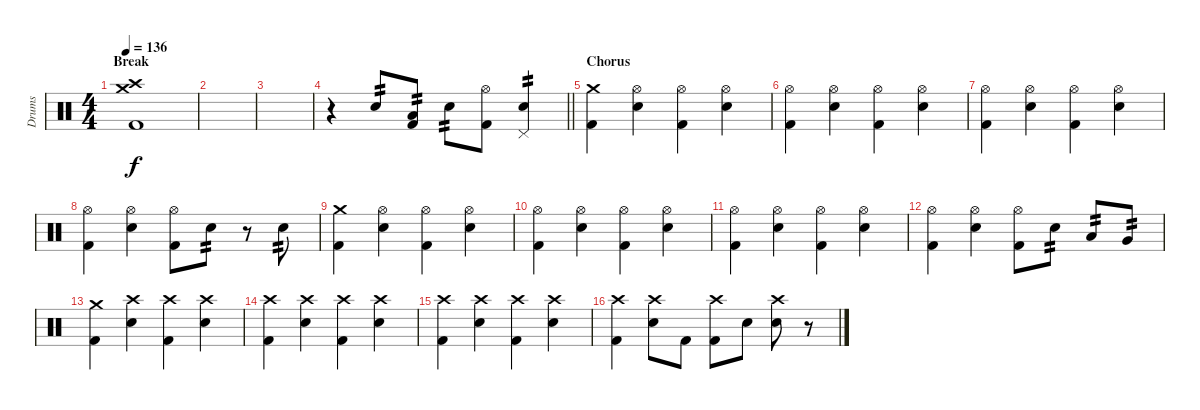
\track ("Drums" "Drums") {instrument percussion}
\staff {score}
\articulation defaults
\ts (4 4)
\section ("" "Break")
\tempo 136
\clef neutral
\ks c
("Crash high (hit)" "Crash medium (hit)" "Kick (hit) 2").1{dy f} |
|
|
\barLineRight lightlight
r.4 "Snare (hit) 2".8{tp 2} ("Low Tom (hit)" "Kick (hit) 2").8{tp 2} "Snare (hit) 2".8{tp 2} ("Hi-Hat (open)" "Kick (hit) 2").8 ("Pedal Hi-Hat (hit)" "Snare (hit) 2").4{tp 2} |
\section ("" "Chorus")
("Crash medium (hit)" "Kick (hit) 2").4 ("Hi-Hat (open)" "Snare (hit) 2").4 ("Hi-Hat (open)" "Kick (hit) 2").4 ("Hi-Hat (open)" "Snare (hit) 2").4 |
("Hi-Hat (open)" "Kick (hit) 2").4 ("Hi-Hat (open)" "Snare (hit) 2").4 ("Hi-Hat (open)" "Kick (hit) 2").4 ("Hi-Hat (open)" "Snare (hit) 2").4 |
("Hi-Hat (open)" "Kick (hit) 2").4 ("Hi-Hat (open)" "Snare (hit) 2").4 ("Hi-Hat (open)" "Kick (hit) 2").4 ("Hi-Hat (open)" "Snare (hit) 2").4 |
("Hi-Hat (open)" "Kick (hit) 2").4 ("Hi-Hat (open)" "Snare (hit) 2").4 ("Hi-Hat (open)" "Kick (hit) 2").8 "Snare (hit) 2".8{tp 2} r.8 "Snare (hit) 2".8{tp 2} |
("Crash medium (hit)" "Kick (hit) 2").4 ("Hi-Hat (open)" "Snare (hit) 2").4 ("Hi-Hat (open)" "Kick (hit) 2").4 ("Hi-Hat (open)" "Snare (hit) 2").4 |
("Hi-Hat (open)" "Kick (hit) 2").4 ("Hi-Hat (open)" "Snare (hit) 2").4 ("Hi-Hat (open)" "Kick (hit) 2").4 ("Hi-Hat (open)" "Snare (hit) 2").4 |
("Hi-Hat (open)" "Kick (hit) 2").4 ("Hi-Hat (open)" "Snare (hit) 2").4 ("Hi-Hat (open)" "Kick (hit) 2").4 ("Hi-Hat (open)" "Snare (hit) 2").4 |
("Hi-Hat (open)" "Kick (hit) 2").4 ("Hi-Hat (open)" "Snare (hit) 2").4 ("Hi-Hat (open)" "Kick (hit) 2").8 "Snare (hit) 2".8{tp 2} "Low Tom (hit)".8{tp 2} "Very Low Tom (hit)".8{tp 2} |
("Crash medium (hit)" "Kick (hit) 2").4 ("Crash high (hit)" "Snare (hit) 2").4 ("Crash high (hit)" "Kick (hit) 2").4 ("Crash high (hit)" "Snare (hit) 2").4 |
("Crash high (hit)" "Kick (hit) 2").4 ("Crash high (hit)" "Snare (hit) 2").4 ("Crash high (hit)" "Kick (hit) 2").4 ("Crash high (hit)" "Snare (hit) 2").4 |
("Crash high (hit)" "Kick (hit) 2").4 ("Crash high (hit)" "Snare (hit) 2").4 ("Crash high (hit)" "Kick (hit) 2").4 ("Crash high (hit)" "Snare (hit) 2").4 |
("Crash high (hit)" "Kick (hit) 2").4 ("Crash high (hit)" "Snare (hit) 2").8 "Kick (hit) 2".8 ("Crash high (hit)" "Kick (hit) 2").8 "Snare (hit) 2".8 ("Crash high (hit)" "Snare (hit) 2").8 r.8
